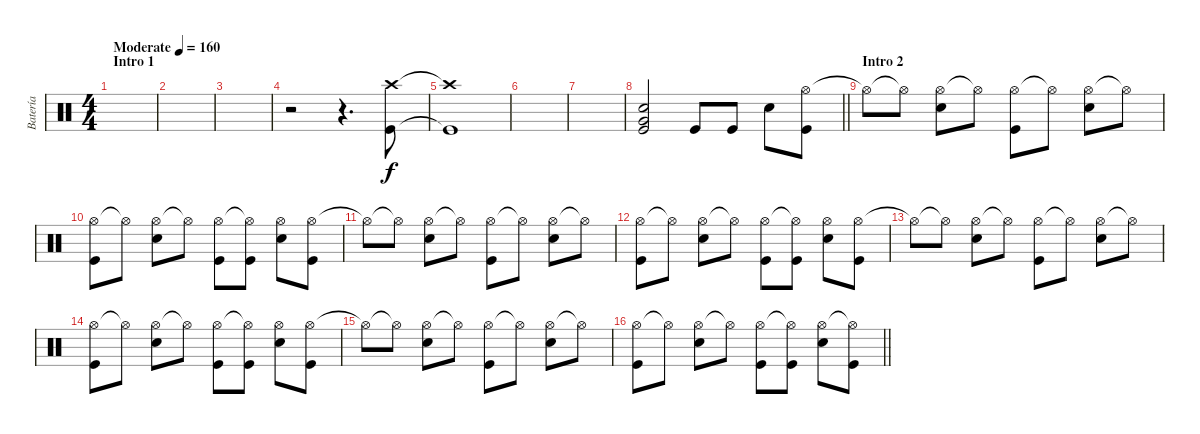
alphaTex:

\track ("Batería" "Batería") {instrument percussion}
\staff {score}
\articulation defaults
\ts (4 4)
\section ("" "Intro 1")
\tempo (160 "Moderate")
\clef neutral
\ks c
|
|
|
r.2 r.4{d} ("Kick (hit)" "Crash high (hit)").8 |
("Kick (hit)"{t} "Crash high (hit)"{t}).1 |
|
|
\barLineRight lightlight
("Very Low Tom (hit)" "Electric Snare (hit)" "Kick (hit)").2 "Kick (hit)".8 "Kick (hit)".8 "Electric Snare (hit)".8 ("Hi-Hat (open)" "Kick (hit)").8 |
\section ("" "Intro 2")
"Hi-Hat (open)"{t}.8 "Hi-Hat (open)"{t}.8 ("Hi-Hat (open)" "Electric Snare (hit)").8 "Hi-Hat (open)"{t}.8 ("Hi-Hat (open)" "Kick (hit)").8 "Hi-Hat (open)"{t}.8 ("Hi-Hat (open)" "Electric Snare (hit)").8 "Hi-Hat (open)"{t}.8 |
("Hi-Hat (open)" "Kick (hit)").8 "Hi-Hat (open)"{t}.8 ("Hi-Hat (open)" "Electric Snare (hit)").8 "Hi-Hat (open)"{t}.8 ("Hi-Hat (open)" "Kick (hit)").8 ("Hi-Hat (open)"{t} "Kick (hit)").8 ("Hi-Hat (open)" "Electric Snare (hit)").8 ("Hi-Hat (open)" "Kick (hit)").8 |
"Hi-Hat (open)"{t}.8 "Hi-Hat (open)"{t}.8 ("Hi-Hat (open)" "Electric Snare (hit)").8 "Hi-Hat (open)"{t}.8 ("Hi-Hat (open)" "Kick (hit)").8 "Hi-Hat (open)"{t}.8 ("Hi-Hat (open)" "Electric Snare (hit)").8 "Hi-Hat (open)"{t}.8 |
("Hi-Hat (open)" "Kick (hit)").8 "Hi-Hat (open)"{t}.8 ("Hi-Hat (open)" "Electric Snare (hit)").8 "Hi-Hat (open)"{t}.8 ("Hi-Hat (open)" "Kick (hit)").8 ("Hi-Hat (open)"{t} "Kick (hit)").8 ("Hi-Hat (open)" "Electric Snare (hit)").8 ("Hi-Hat (open)" "Kick (hit)").8 |
"Hi-Hat (open)"{t}.8 "Hi-Hat (open)"{t}.8 ("Hi-Hat (open)" "Electric Snare (hit)").8 "Hi-Hat (open)"{t}.8 ("Hi-Hat (open)" "Kick (hit)").8 "Hi-Hat (open)"{t}.8 ("Hi-Hat (open)" "Electric Snare (hit)").8 "Hi-Hat (open)"{t}.8 |
("Hi-Hat (open)" "Kick (hit)").8 "Hi-Hat (open)"{t}.8 ("Hi-Hat (open)" "Electric Snare (hit)").8 "Hi-Hat (open)"{t}.8 ("Hi-Hat (open)" "Kick (hit)").8 ("Hi-Hat (open)"{t} "Kick (hit)").8 ("Hi-Hat (open)" "Electric Snare (hit)").8 ("Hi-Hat (open)" "Kick (hit)").8 |
"Hi-Hat (open)"{t}.8 "Hi-Hat (open)"{t}.8 ("Hi-Hat (open)" "Electric Snare (hit)").8 "Hi-Hat (open)"{t}.8 ("Hi-Hat (open)" "Kick (hit)").8 "Hi-Hat (open)"{t}.8 ("Hi-Hat (open)" "Electric Snare (hit)").8 "Hi-Hat (open)"{t}.8 |
\barLineRight lightlight
("Hi-Hat (open)" "Kick (hit)").8 "Hi-Hat (open)"{t}.8 ("Hi-Hat (open)" "Electric Snare (hit)").8 "Hi-Hat (open)"{t}.8 ("Hi-Hat (open)" "Kick (hit)").8 ("Hi-Hat (open)"{t} "Kick (hit)").8 ("Hi-Hat (open)" "Electric Snare (hit)").8 ("Hi-Hat (open)"{t} "Kick (hit)").8
